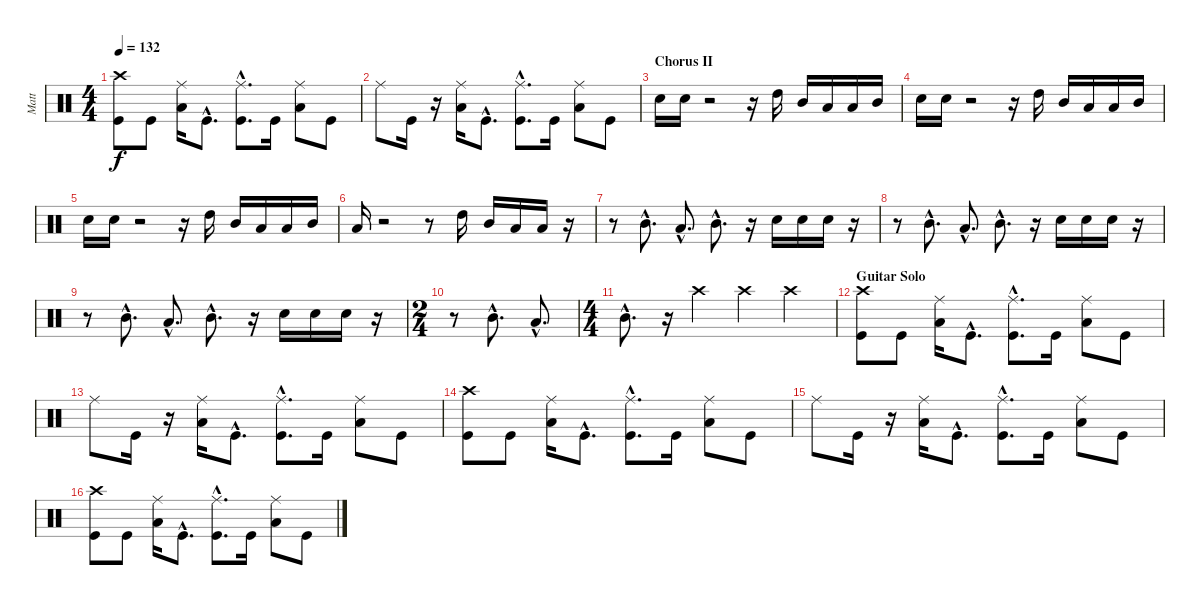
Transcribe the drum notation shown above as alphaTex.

\track ("Matt" "Matt") {instrument percussion}
\staff {score}
\articulation defaults
\ts (4 4)
\tempo 132
\clef neutral
\ks c
("Crash high (hit)" "Kick (hit)").8{dy f} "Kick (hit)".8 ("Ride (middle)" "Low Tom (hit)").16 "Kick (hit)"{hac}.8{d} ("Kick (hit)"{hac} "Ride (middle)").8{d} "Kick (hit)".16 ("Ride (middle)" "Low Tom (hit)").8 "Kick (hit)".8 |
"Ride (middle)".8 "Kick (hit)".16 r.16 ("Ride (middle)" "Low Tom (hit)").16 "Kick (hit)"{hac}.8{d} ("Ride (middle)" "Kick (hit)"{hac}).8{d} "Kick (hit)".16 ("Low Tom (hit)" "Ride (middle)").8 "Kick (hit)".8 |
\section ("" "Chorus II")
"Electric Snare (hit)".16 "Electric Snare (hit)".16 r.2 r.16 "High Tom (hit)".16 "Mid Tom (hit)".16 "Low Tom (hit)".16 "Low Tom (hit)".16 "Mid Tom (hit)".16 |
"Electric Snare (hit)".16 "Electric Snare (hit)".16 r.2 r.16 "High Tom (hit)".16 "Mid Tom (hit)".16 "Low Tom (hit)".16 "Low Tom (hit)".16 "Mid Tom (hit)".16 |
"Electric Snare (hit)".16 "Electric Snare (hit)".16 r.2 r.16 "High Tom (hit)".16 "Mid Tom (hit)".16 "Low Tom (hit)".16 "Low Tom (hit)".16 "Mid Tom (hit)".16 |
"Low Tom (hit)".16 r.2 r.8 "High Tom (hit)".16 "Mid Tom (hit)".16 "Low Tom (hit)".16 "Low Tom (hit)".16 r.16 |
r.8 "Mid Tom (hit)"{hac}.8{d} "Low Tom (hit)"{hac}.8{d} "Mid Tom (hit)"{hac}.8{d} r.16 "Electric Snare (hit)".16 "Electric Snare (hit)".16 "Electric Snare (hit)".16 r.16 |
r.8 "Mid Tom (hit)"{hac}.8{d} "Low Tom (hit)"{hac}.8{d} "Mid Tom (hit)"{hac}.8{d} r.16 "Electric Snare (hit)".16 "Electric Snare (hit)".16 "Electric Snare (hit)".16 r.16 |
r.8 "Mid Tom (hit)"{hac}.8{d} "Low Tom (hit)"{hac}.8{d} "Mid Tom (hit)"{hac}.8{d} r.16 "Electric Snare (hit)".16 "Electric Snare (hit)".16 "Electric Snare (hit)".16 r.16 |
\ts (2 4)
r.8 "Mid Tom (hit)"{hac}.8{d} "Low Tom (hit)"{hac}.8{d} |
\ts (4 4)
"Mid Tom (hit)"{hac}.8{d} r.16 "Crash high (hit)".4 "Crash high (hit)".4 "Crash high (hit)".4 |
\section ("" "Guitar Solo")
("Crash high (hit)" "Kick (hit)").8 "Kick (hit)".8 ("Ride (middle)" "Low Tom (hit)").16 "Kick (hit)"{hac}.8{d} ("Ride (middle)" "Kick (hit)"{hac}).8{d} "Kick (hit)".16 ("Low Tom (hit)" "Ride (middle)").8 "Kick (hit)".8 |
"Ride (middle)".8 "Kick (hit)".16 r.16 ("Low Tom (hit)" "Ride (middle)").16 "Kick (hit)"{hac}.8{d} ("Kick (hit)"{hac} "Ride (middle)").8{d} "Kick (hit)".16 ("Ride (middle)" "Low Tom (hit)").8 "Kick (hit)".8 |
("Crash high (hit)" "Kick (hit)").8 "Kick (hit)".8 ("Low Tom (hit)" "Ride (middle)").16 "Kick (hit)"{hac}.8{d} ("Ride (middle)" "Kick (hit)"{hac}).8{d} "Kick (hit)".16 ("Low Tom (hit)" "Ride (middle)").8 "Kick (hit)".8 |
"Ride (middle)".8 "Kick (hit)".16 r.16 ("Low Tom (hit)" "Ride (middle)").16 "Kick (hit)"{hac}.8{d} ("Kick (hit)"{hac} "Ride (middle)").8{d} "Kick (hit)".16 ("Ride (middle)" "Low Tom (hit)").8 "Kick (hit)".8 |
("Crash high (hit)" "Kick (hit)").8 "Kick (hit)".8 ("Low Tom (hit)" "Ride (middle)").16 "Kick (hit)"{hac}.8{d} ("Kick (hit)"{hac} "Ride (middle)").8{d} "Kick (hit)".16 ("Ride (middle)" "Low Tom (hit)").8 "Kick (hit)".8
